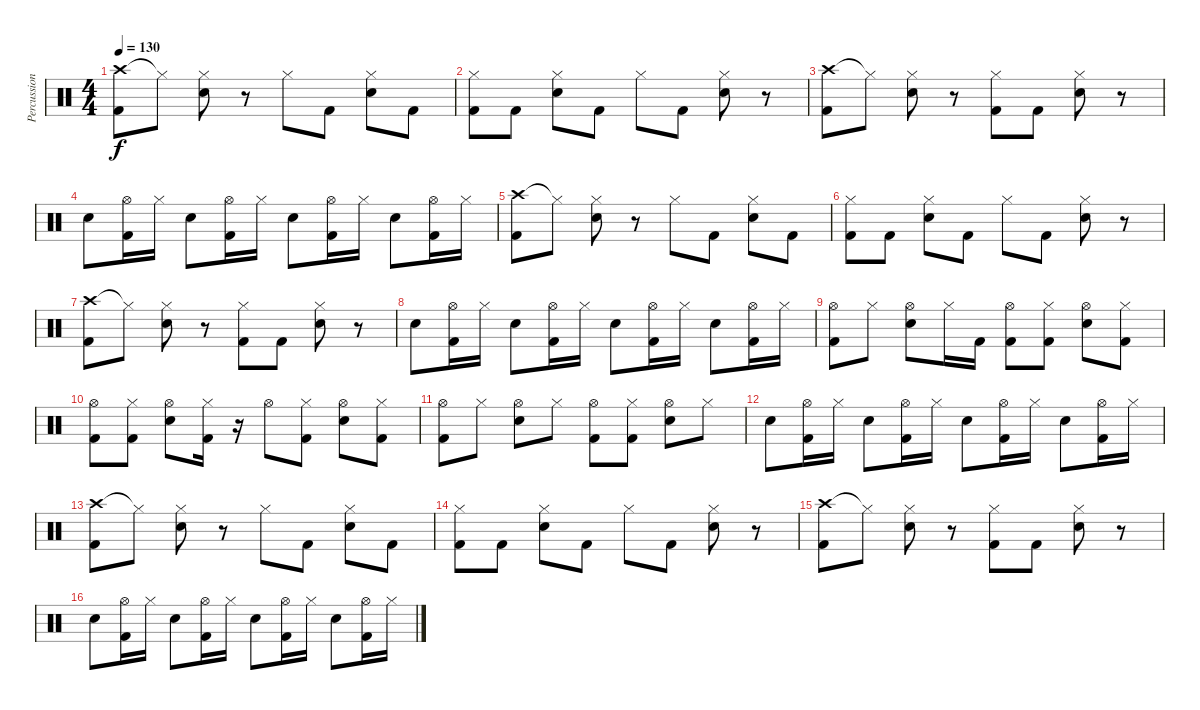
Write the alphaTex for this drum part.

\track ("Percussion" "Percussion") {instrument percussion}
\staff {score}
\articulation defaults
\ts (4 4)
\tempo 130
\clef neutral
\ks c
("Crash high (hit)" "Kick (hit) 2").8{dy f} "Hi-Hat (closed)"{t}.8 ("Hi-Hat (closed)" "Snare (hit) 2").8 r.8 "Hi-Hat (closed)".8 "Kick (hit) 2".8 ("Hi-Hat (closed)" "Snare (hit) 2").8 "Kick (hit) 2".8 |
("Hi-Hat (closed)" "Kick (hit) 2").8 "Kick (hit) 2".8 ("Hi-Hat (closed)" "Snare (hit) 2").8 "Kick (hit) 2".8 "Hi-Hat (closed)".8 "Kick (hit) 2".8 ("Hi-Hat (closed)" "Snare (hit) 2").8 r.8 |
("Crash high (hit)" "Kick (hit) 2").8 "Hi-Hat (closed)"{t}.8 ("Hi-Hat (closed)" "Snare (hit) 2").8 r.8 ("Hi-Hat (closed)" "Kick (hit) 2").8 "Kick (hit) 2".8 ("Hi-Hat (closed)" "Snare (hit) 2").8 r.8 |
"Snare (hit) 2".8 ("Hi-Hat (open)" "Kick (hit) 2").16 "Hi-Hat (closed)".16 "Snare (hit) 2".8 ("Hi-Hat (open)" "Kick (hit) 2").16 "Hi-Hat (closed)".16 "Snare (hit) 2".8 ("Hi-Hat (open)" "Kick (hit) 2").16 "Hi-Hat (closed)".16 "Snare (hit) 2".8 ("Hi-Hat (open)" "Kick (hit) 2").16 "Hi-Hat (closed)".16 |
("Crash high (hit)" "Kick (hit) 2").8 "Hi-Hat (closed)"{t}.8 ("Hi-Hat (closed)" "Snare (hit) 2").8 r.8 "Hi-Hat (closed)".8 "Kick (hit) 2".8 ("Hi-Hat (closed)" "Snare (hit) 2").8 "Kick (hit) 2".8 |
("Hi-Hat (closed)" "Kick (hit) 2").8 "Kick (hit) 2".8 ("Hi-Hat (closed)" "Snare (hit) 2").8 "Kick (hit) 2".8 "Hi-Hat (closed)".8 "Kick (hit) 2".8 ("Hi-Hat (closed)" "Snare (hit) 2").8 r.8 |
("Crash high (hit)" "Kick (hit) 2").8 "Hi-Hat (closed)"{t}.8 ("Hi-Hat (closed)" "Snare (hit) 2").8 r.8 ("Hi-Hat (closed)" "Kick (hit) 2").8 "Kick (hit) 2".8 ("Hi-Hat (closed)" "Snare (hit) 2").8 r.8 |
"Snare (hit) 2".8 ("Hi-Hat (open)" "Kick (hit) 2").16 "Hi-Hat (closed)".16 "Snare (hit) 2".8 ("Hi-Hat (open)" "Kick (hit) 2").16 "Hi-Hat (closed)".16 "Snare (hit) 2".8 ("Hi-Hat (open)" "Kick (hit) 2").16 "Hi-Hat (closed)".16 "Snare (hit) 2".8 ("Hi-Hat (open)" "Kick (hit) 2").16 "Hi-Hat (closed)".16 |
("Hi-Hat (open)" "Kick (hit) 2").8 "Hi-Hat (closed)".8 ("Hi-Hat (open)" "Snare (hit) 2").8 "Hi-Hat (closed)".16 "Kick (hit) 2".16 ("Hi-Hat (open)" "Kick (hit) 2").8 ("Hi-Hat (closed)" "Kick (hit) 2").8 ("Hi-Hat (open)" "Snare (hit) 2").8 ("Hi-Hat (closed)" "Kick (hit) 2").8 |
("Hi-Hat (open)" "Kick (hit) 2").8 ("Hi-Hat (closed)" "Kick (hit) 2").8 ("Hi-Hat (open)" "Snare (hit) 2").8 ("Hi-Hat (closed)" "Kick (hit) 2").16 r.16 "Hi-Hat (open)".8 ("Hi-Hat (closed)" "Kick (hit) 2").8 ("Hi-Hat (open)" "Snare (hit) 2").8 ("Hi-Hat (closed)" "Kick (hit) 2").8 |
("Hi-Hat (open)" "Kick (hit) 2").8 "Hi-Hat (closed)".8 ("Hi-Hat (open)" "Snare (hit) 2").8 "Hi-Hat (closed)".8 ("Hi-Hat (open)" "Kick (hit) 2").8 ("Hi-Hat (closed)" "Kick (hit) 2").8 ("Hi-Hat (open)" "Snare (hit) 2").8 "Hi-Hat (closed)".8 |
"Snare (hit) 2".8 ("Hi-Hat (open)" "Kick (hit) 2").16 "Hi-Hat (closed)".16 "Snare (hit) 2".8 ("Hi-Hat (open)" "Kick (hit) 2").16 "Hi-Hat (closed)".16 "Snare (hit) 2".8 ("Hi-Hat (open)" "Kick (hit) 2").16 "Hi-Hat (closed)".16 "Snare (hit) 2".8 ("Hi-Hat (open)" "Kick (hit) 2").16 "Hi-Hat (closed)".16 |
("Crash high (hit)" "Kick (hit) 2").8 "Hi-Hat (closed)"{t}.8 ("Hi-Hat (closed)" "Snare (hit) 2").8 r.8 "Hi-Hat (closed)".8 "Kick (hit) 2".8 ("Hi-Hat (closed)" "Snare (hit) 2").8 "Kick (hit) 2".8 |
("Hi-Hat (closed)" "Kick (hit) 2").8 "Kick (hit) 2".8 ("Hi-Hat (closed)" "Snare (hit) 2").8 "Kick (hit) 2".8 "Hi-Hat (closed)".8 "Kick (hit) 2".8 ("Hi-Hat (closed)" "Snare (hit) 2").8 r.8 |
("Crash high (hit)" "Kick (hit) 2").8 "Hi-Hat (closed)"{t}.8 ("Hi-Hat (closed)" "Snare (hit) 2").8 r.8 ("Hi-Hat (closed)" "Kick (hit) 2").8 "Kick (hit) 2".8 ("Hi-Hat (closed)" "Snare (hit) 2").8 r.8 |
"Snare (hit) 2".8 ("Hi-Hat (open)" "Kick (hit) 2").16 "Hi-Hat (closed)".16 "Snare (hit) 2".8 ("Hi-Hat (open)" "Kick (hit) 2").16 "Hi-Hat (closed)".16 "Snare (hit) 2".8 ("Hi-Hat (open)" "Kick (hit) 2").16 "Hi-Hat (closed)".16 "Snare (hit) 2".8 ("Hi-Hat (open)" "Kick (hit) 2").16 "Hi-Hat (closed)".16
